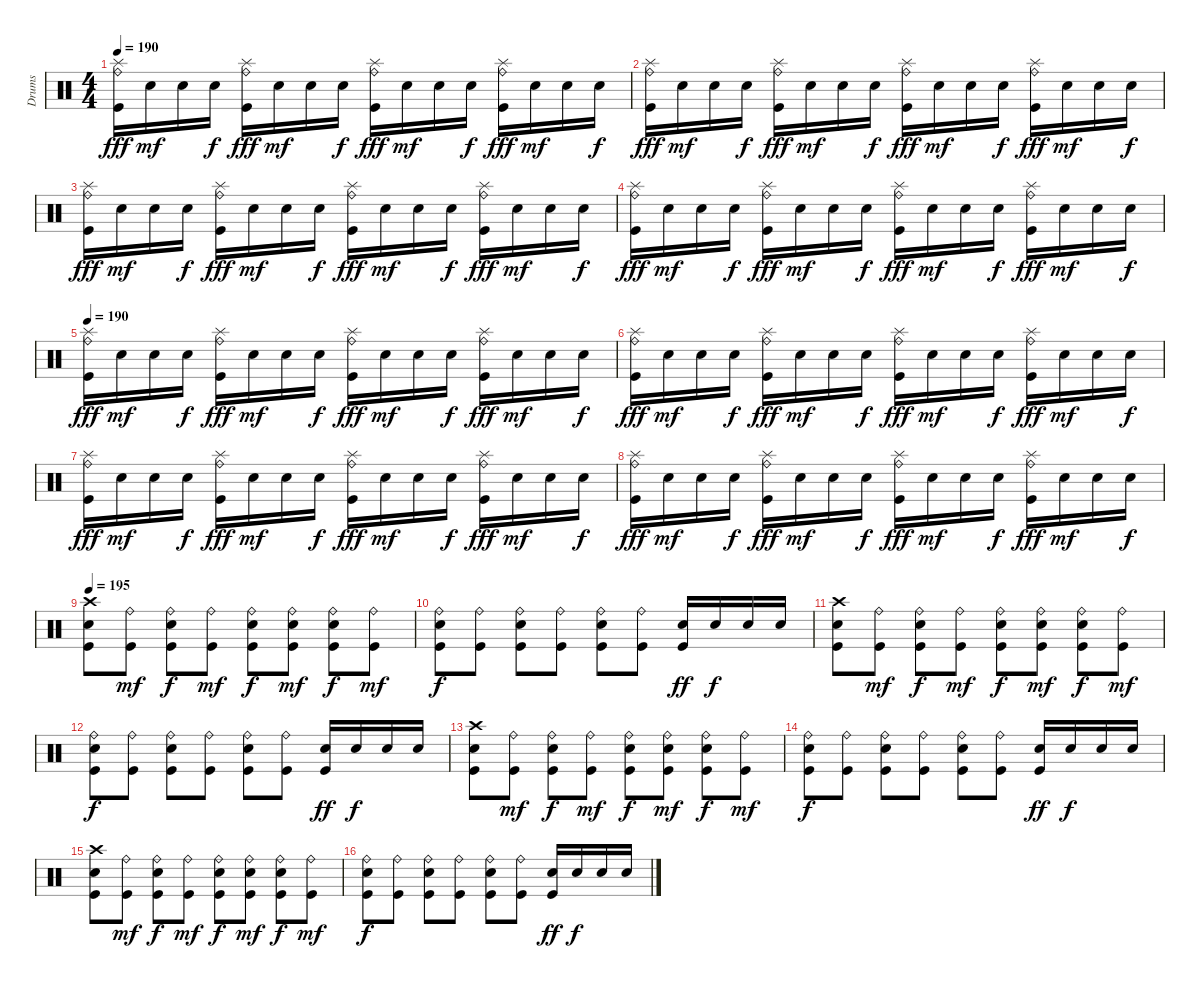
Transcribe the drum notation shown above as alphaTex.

\track ("Drums" "Drums") {instrument percussion}
\staff {score}
\articulation defaults
\ts (4 4)
\tempo 190
\clef neutral
\ks c
("Splash (hit)" "Ride (bell)" "Kick (hit)").16{dy fff} "Electric Snare (hit)".16{dy mf} "Electric Snare (hit)".16 "Electric Snare (hit)".16{dy f} ("Splash (hit)" "Ride (bell)" "Kick (hit)").16{dy fff} "Electric Snare (hit)".16{dy mf} "Electric Snare (hit)".16 "Electric Snare (hit)".16{dy f} ("Splash (hit)" "Ride (bell)" "Kick (hit)").16{dy fff} "Electric Snare (hit)".16{dy mf} "Electric Snare (hit)".16 "Electric Snare (hit)".16{dy f} ("Splash (hit)" "Ride (bell)" "Kick (hit)").16{dy fff} "Electric Snare (hit)".16{dy mf} "Electric Snare (hit)".16 "Electric Snare (hit)".16{dy f} |
("Splash (hit)" "Ride (bell)" "Kick (hit)").16{dy fff} "Electric Snare (hit)".16{dy mf} "Electric Snare (hit)".16 "Electric Snare (hit)".16{dy f} ("Splash (hit)" "Ride (bell)" "Kick (hit)").16{dy fff} "Electric Snare (hit)".16{dy mf} "Electric Snare (hit)".16 "Electric Snare (hit)".16{dy f} ("Splash (hit)" "Ride (bell)" "Kick (hit)").16{dy fff} "Electric Snare (hit)".16{dy mf} "Electric Snare (hit)".16 "Electric Snare (hit)".16{dy f} ("Splash (hit)" "Ride (bell)" "Kick (hit)").16{dy fff} "Electric Snare (hit)".16{dy mf} "Electric Snare (hit)".16 "Electric Snare (hit)".16{dy f} |
("Splash (hit)" "Ride (bell)" "Kick (hit)").16{dy fff} "Electric Snare (hit)".16{dy mf} "Electric Snare (hit)".16 "Electric Snare (hit)".16{dy f} ("Splash (hit)" "Ride (bell)" "Kick (hit)").16{dy fff} "Electric Snare (hit)".16{dy mf} "Electric Snare (hit)".16 "Electric Snare (hit)".16{dy f} ("Splash (hit)" "Ride (bell)" "Kick (hit)").16{dy fff} "Electric Snare (hit)".16{dy mf} "Electric Snare (hit)".16 "Electric Snare (hit)".16{dy f} ("Splash (hit)" "Ride (bell)" "Kick (hit)").16{dy fff} "Electric Snare (hit)".16{dy mf} "Electric Snare (hit)".16 "Electric Snare (hit)".16{dy f} |
("Splash (hit)" "Ride (bell)" "Kick (hit)").16{dy fff} "Electric Snare (hit)".16{dy mf} "Electric Snare (hit)".16 "Electric Snare (hit)".16{dy f} ("Splash (hit)" "Ride (bell)" "Kick (hit)").16{dy fff} "Electric Snare (hit)".16{dy mf} "Electric Snare (hit)".16 "Electric Snare (hit)".16{dy f} ("Splash (hit)" "Ride (bell)" "Kick (hit)").16{dy fff} "Electric Snare (hit)".16{dy mf} "Electric Snare (hit)".16 "Electric Snare (hit)".16{dy f} ("Splash (hit)" "Ride (bell)" "Kick (hit)").16{dy fff} "Electric Snare (hit)".16{dy mf} "Electric Snare (hit)".16 "Electric Snare (hit)".16{dy f} |
\tempo 190
("Splash (hit)" "Ride (bell)" "Kick (hit)").16{dy fff} "Electric Snare (hit)".16{dy mf} "Electric Snare (hit)".16 "Electric Snare (hit)".16{dy f} ("Splash (hit)" "Ride (bell)" "Kick (hit)").16{dy fff} "Electric Snare (hit)".16{dy mf} "Electric Snare (hit)".16 "Electric Snare (hit)".16{dy f} ("Splash (hit)" "Ride (bell)" "Kick (hit)").16{dy fff} "Electric Snare (hit)".16{dy mf} "Electric Snare (hit)".16 "Electric Snare (hit)".16{dy f} ("Splash (hit)" "Ride (bell)" "Kick (hit)").16{dy fff} "Electric Snare (hit)".16{dy mf} "Electric Snare (hit)".16 "Electric Snare (hit)".16{dy f} |
("Splash (hit)" "Ride (bell)" "Kick (hit)").16{dy fff} "Electric Snare (hit)".16{dy mf} "Electric Snare (hit)".16 "Electric Snare (hit)".16{dy f} ("Splash (hit)" "Ride (bell)" "Kick (hit)").16{dy fff} "Electric Snare (hit)".16{dy mf} "Electric Snare (hit)".16 "Electric Snare (hit)".16{dy f} ("Splash (hit)" "Ride (bell)" "Kick (hit)").16{dy fff} "Electric Snare (hit)".16{dy mf} "Electric Snare (hit)".16 "Electric Snare (hit)".16{dy f} ("Splash (hit)" "Ride (bell)" "Kick (hit)").16{dy fff} "Electric Snare (hit)".16{dy mf} "Electric Snare (hit)".16 "Electric Snare (hit)".16{dy f} |
("Splash (hit)" "Ride (bell)" "Kick (hit)").16{dy fff} "Electric Snare (hit)".16{dy mf} "Electric Snare (hit)".16 "Electric Snare (hit)".16{dy f} ("Splash (hit)" "Ride (bell)" "Kick (hit)").16{dy fff} "Electric Snare (hit)".16{dy mf} "Electric Snare (hit)".16 "Electric Snare (hit)".16{dy f} ("Splash (hit)" "Ride (bell)" "Kick (hit)").16{dy fff} "Electric Snare (hit)".16{dy mf} "Electric Snare (hit)".16 "Electric Snare (hit)".16{dy f} ("Splash (hit)" "Ride (bell)" "Kick (hit)").16{dy fff} "Electric Snare (hit)".16{dy mf} "Electric Snare (hit)".16 "Electric Snare (hit)".16{dy f} |
("Splash (hit)" "Ride (bell)" "Kick (hit)").16{dy fff} "Electric Snare (hit)".16{dy mf} "Electric Snare (hit)".16 "Electric Snare (hit)".16{dy f} ("Splash (hit)" "Ride (bell)" "Kick (hit)").16{dy fff} "Electric Snare (hit)".16{dy mf} "Electric Snare (hit)".16 "Electric Snare (hit)".16{dy f} ("Splash (hit)" "Ride (bell)" "Kick (hit)").16{dy fff} "Electric Snare (hit)".16{dy mf} "Electric Snare (hit)".16 "Electric Snare (hit)".16{dy f} ("Splash (hit)" "Ride (bell)" "Kick (hit)").16{dy fff} "Electric Snare (hit)".16{dy mf} "Electric Snare (hit)".16 "Electric Snare (hit)".16{dy f} |
\tempo 195
("Crash high (hit)" "Electric Snare (hit)" "Kick (hit)").8 ("Ride (bell)" "Kick (hit)").8{dy mf} ("Ride (bell)" "Electric Snare (hit)" "Kick (hit)").8{dy f} ("Ride (bell)" "Kick (hit)").8{dy mf} ("Ride (bell)" "Electric Snare (hit)" "Kick (hit)").8{dy f} ("Ride (bell)" "Electric Snare (hit)" "Kick (hit)").8{dy mf} ("Ride (bell)" "Electric Snare (hit)" "Kick (hit)").8{dy f} ("Ride (bell)" "Kick (hit)").8{dy mf} |
("Ride (bell)" "Electric Snare (hit)" "Kick (hit)").8{dy f} ("Ride (bell)" "Kick (hit)").8 ("Ride (bell)" "Electric Snare (hit)" "Kick (hit)").8 ("Ride (bell)" "Kick (hit)").8 ("Ride (bell)" "Electric Snare (hit)" "Kick (hit)").8 ("Ride (bell)" "Kick (hit)").8 ("Electric Snare (hit)" "Kick (hit)").16{dy ff} "Electric Snare (hit)".16{dy f} "Electric Snare (hit)".16 "Electric Snare (hit)".16 |
("Crash high (hit)" "Electric Snare (hit)" "Kick (hit)").8 ("Ride (bell)" "Kick (hit)").8{dy mf} ("Ride (bell)" "Electric Snare (hit)" "Kick (hit)").8{dy f} ("Ride (bell)" "Kick (hit)").8{dy mf} ("Ride (bell)" "Electric Snare (hit)" "Kick (hit)").8{dy f} ("Ride (bell)" "Electric Snare (hit)" "Kick (hit)").8{dy mf} ("Ride (bell)" "Electric Snare (hit)" "Kick (hit)").8{dy f} ("Ride (bell)" "Kick (hit)").8{dy mf} |
("Ride (bell)" "Electric Snare (hit)" "Kick (hit)").8{dy f} ("Ride (bell)" "Kick (hit)").8 ("Ride (bell)" "Electric Snare (hit)" "Kick (hit)").8 ("Ride (bell)" "Kick (hit)").8 ("Ride (bell)" "Electric Snare (hit)" "Kick (hit)").8 ("Ride (bell)" "Kick (hit)").8 ("Electric Snare (hit)" "Kick (hit)").16{dy ff} "Electric Snare (hit)".16{dy f} "Electric Snare (hit)".16 "Electric Snare (hit)".16 |
("Crash high (hit)" "Electric Snare (hit)" "Kick (hit)").8 ("Ride (bell)" "Kick (hit)").8{dy mf} ("Ride (bell)" "Electric Snare (hit)" "Kick (hit)").8{dy f} ("Ride (bell)" "Kick (hit)").8{dy mf} ("Ride (bell)" "Electric Snare (hit)" "Kick (hit)").8{dy f} ("Ride (bell)" "Electric Snare (hit)" "Kick (hit)").8{dy mf} ("Ride (bell)" "Electric Snare (hit)" "Kick (hit)").8{dy f} ("Ride (bell)" "Kick (hit)").8{dy mf} |
("Ride (bell)" "Electric Snare (hit)" "Kick (hit)").8{dy f} ("Ride (bell)" "Kick (hit)").8 ("Ride (bell)" "Electric Snare (hit)" "Kick (hit)").8 ("Ride (bell)" "Kick (hit)").8 ("Ride (bell)" "Electric Snare (hit)" "Kick (hit)").8 ("Ride (bell)" "Kick (hit)").8 ("Electric Snare (hit)" "Kick (hit)").16{dy ff} "Electric Snare (hit)".16{dy f} "Electric Snare (hit)".16 "Electric Snare (hit)".16 |
("Crash high (hit)" "Electric Snare (hit)" "Kick (hit)").8 ("Ride (bell)" "Kick (hit)").8{dy mf} ("Ride (bell)" "Electric Snare (hit)" "Kick (hit)").8{dy f} ("Ride (bell)" "Kick (hit)").8{dy mf} ("Ride (bell)" "Electric Snare (hit)" "Kick (hit)").8{dy f} ("Ride (bell)" "Electric Snare (hit)" "Kick (hit)").8{dy mf} ("Ride (bell)" "Electric Snare (hit)" "Kick (hit)").8{dy f} ("Ride (bell)" "Kick (hit)").8{dy mf} |
("Ride (bell)" "Electric Snare (hit)" "Kick (hit)").8{dy f} ("Ride (bell)" "Kick (hit)").8 ("Ride (bell)" "Electric Snare (hit)" "Kick (hit)").8 ("Ride (bell)" "Kick (hit)").8 ("Ride (bell)" "Electric Snare (hit)" "Kick (hit)").8 ("Ride (bell)" "Kick (hit)").8 ("Electric Snare (hit)" "Kick (hit)").16{dy ff} "Electric Snare (hit)".16{dy f} "Electric Snare (hit)".16 "Electric Snare (hit)".16
